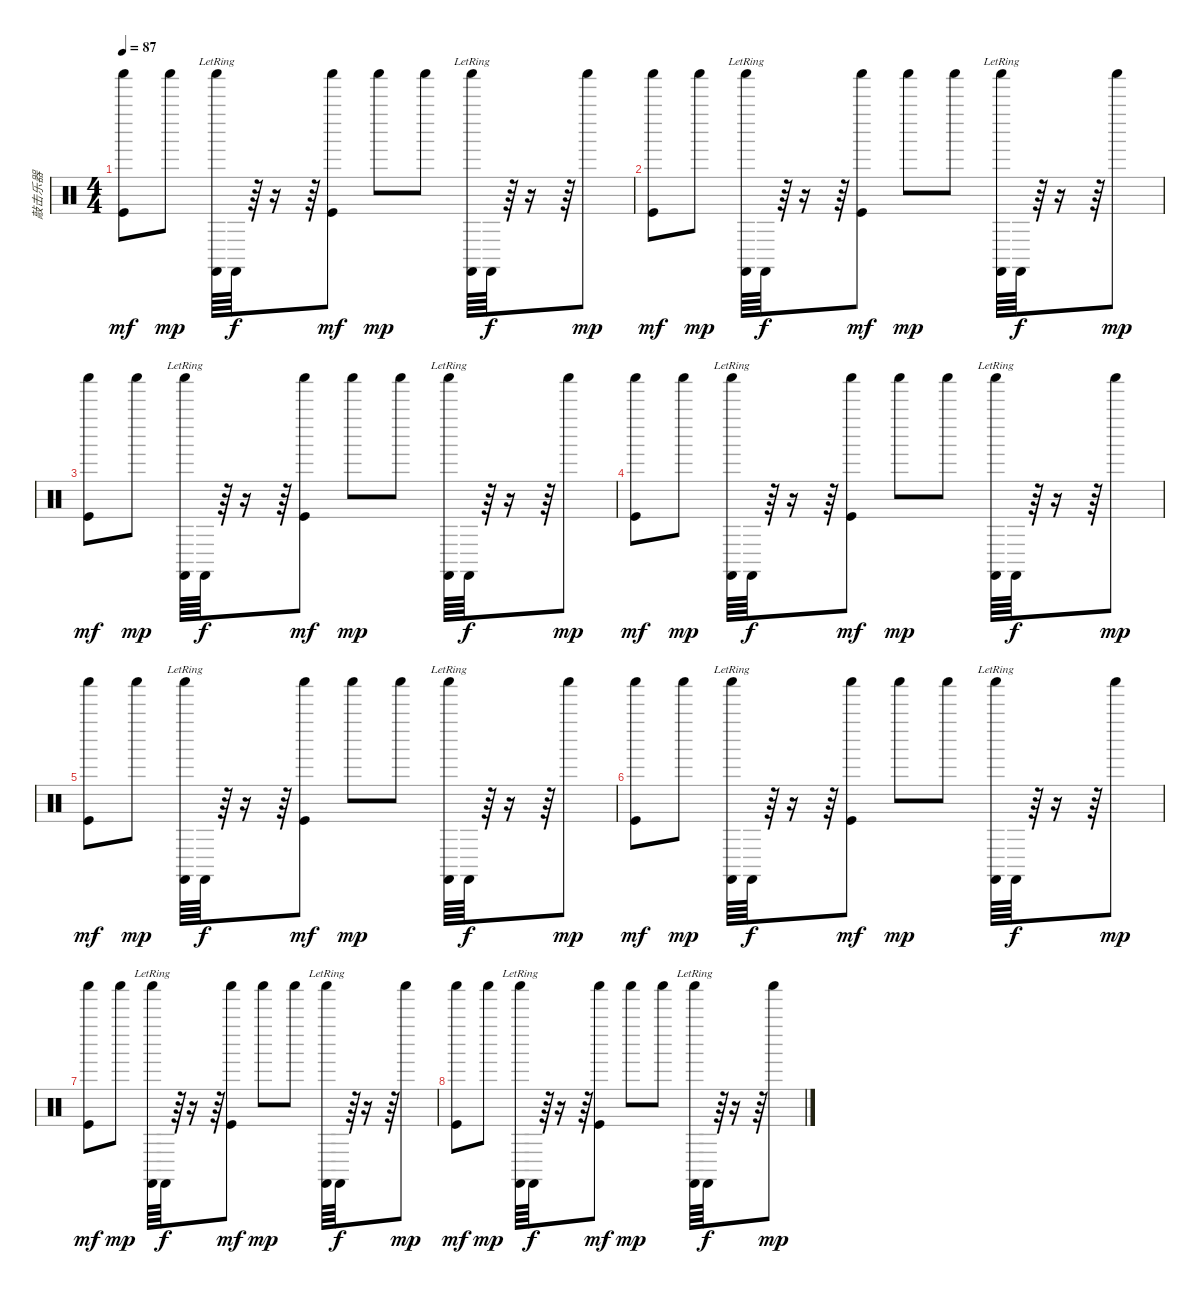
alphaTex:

\track ("敲击乐器" "敲击乐器") {instrument percussion}
\staff {score}
\articulation defaults
\ts (4 4)
\tempo 87
\clef neutral
\ks c
("Shaker (hit)" "Kick (hit)").8{dy mf} "Shaker (hit)".8{dy mp} ("Shaker (hit)"{lr} "Castanets (hit)").64 "Castanets (hit)".64{dy f} r.64 r.16 r.64 ("Shaker (hit)" "Kick (hit)").8{dy mf} "Shaker (hit)".8{dy mp} "Shaker (hit)".8 ("Shaker (hit)"{lr} "Castanets (hit)").64 "Castanets (hit)".64{dy f} r.64 r.16 r.64 "Shaker (hit)".8{dy mp} |
("Shaker (hit)" "Kick (hit)").8{dy mf} "Shaker (hit)".8{dy mp} ("Shaker (hit)"{lr} "Castanets (hit)").64 "Castanets (hit)".64{dy f} r.64 r.16 r.64 ("Shaker (hit)" "Kick (hit)").8{dy mf} "Shaker (hit)".8{dy mp} "Shaker (hit)".8 ("Shaker (hit)"{lr} "Castanets (hit)").64 "Castanets (hit)".64{dy f} r.64 r.16 r.64 "Shaker (hit)".8{dy mp} |
("Shaker (hit)" "Kick (hit)").8{dy mf} "Shaker (hit)".8{dy mp} ("Shaker (hit)"{lr} "Castanets (hit)").64 "Castanets (hit)".64{dy f} r.64 r.16 r.64 ("Shaker (hit)" "Kick (hit)").8{dy mf} "Shaker (hit)".8{dy mp} "Shaker (hit)".8 ("Shaker (hit)"{lr} "Castanets (hit)").64 "Castanets (hit)".64{dy f} r.64 r.16 r.64 "Shaker (hit)".8{dy mp} |
("Shaker (hit)" "Kick (hit)").8{dy mf} "Shaker (hit)".8{dy mp} ("Shaker (hit)"{lr} "Castanets (hit)").64 "Castanets (hit)".64{dy f} r.64 r.16 r.64 ("Shaker (hit)" "Kick (hit)").8{dy mf} "Shaker (hit)".8{dy mp} "Shaker (hit)".8 ("Shaker (hit)"{lr} "Castanets (hit)").64 "Castanets (hit)".64{dy f} r.64 r.16 r.64 "Shaker (hit)".8{dy mp} |
("Shaker (hit)" "Kick (hit)").8{dy mf} "Shaker (hit)".8{dy mp} ("Shaker (hit)"{lr} "Castanets (hit)").64 "Castanets (hit)".64{dy f} r.64 r.16 r.64 ("Shaker (hit)" "Kick (hit)").8{dy mf} "Shaker (hit)".8{dy mp} "Shaker (hit)".8 ("Shaker (hit)"{lr} "Castanets (hit)").64 "Castanets (hit)".64{dy f} r.64 r.16 r.64 "Shaker (hit)".8{dy mp} |
("Shaker (hit)" "Kick (hit)").8{dy mf} "Shaker (hit)".8{dy mp} ("Shaker (hit)"{lr} "Castanets (hit)").64 "Castanets (hit)".64{dy f} r.64 r.16 r.64 ("Shaker (hit)" "Kick (hit)").8{dy mf} "Shaker (hit)".8{dy mp} "Shaker (hit)".8 ("Shaker (hit)"{lr} "Castanets (hit)").64 "Castanets (hit)".64{dy f} r.64 r.16 r.64 "Shaker (hit)".8{dy mp} |
("Shaker (hit)" "Kick (hit)").8{dy mf} "Shaker (hit)".8{dy mp} ("Shaker (hit)"{lr} "Castanets (hit)").64 "Castanets (hit)".64{dy f} r.64 r.16 r.64 ("Shaker (hit)" "Kick (hit)").8{dy mf} "Shaker (hit)".8{dy mp} "Shaker (hit)".8 ("Shaker (hit)"{lr} "Castanets (hit)").64 "Castanets (hit)".64{dy f} r.64 r.16 r.64 "Shaker (hit)".8{dy mp} |
("Shaker (hit)" "Kick (hit)").8{dy mf} "Shaker (hit)".8{dy mp} ("Shaker (hit)"{lr} "Castanets (hit)").64 "Castanets (hit)".64{dy f} r.64 r.16 r.64 ("Shaker (hit)" "Kick (hit)").8{dy mf} "Shaker (hit)".8{dy mp} "Shaker (hit)".8 ("Shaker (hit)"{lr} "Castanets (hit)").64 "Castanets (hit)".64{dy f} r.64 r.16 r.64 "Shaker (hit)".8{dy mp}
